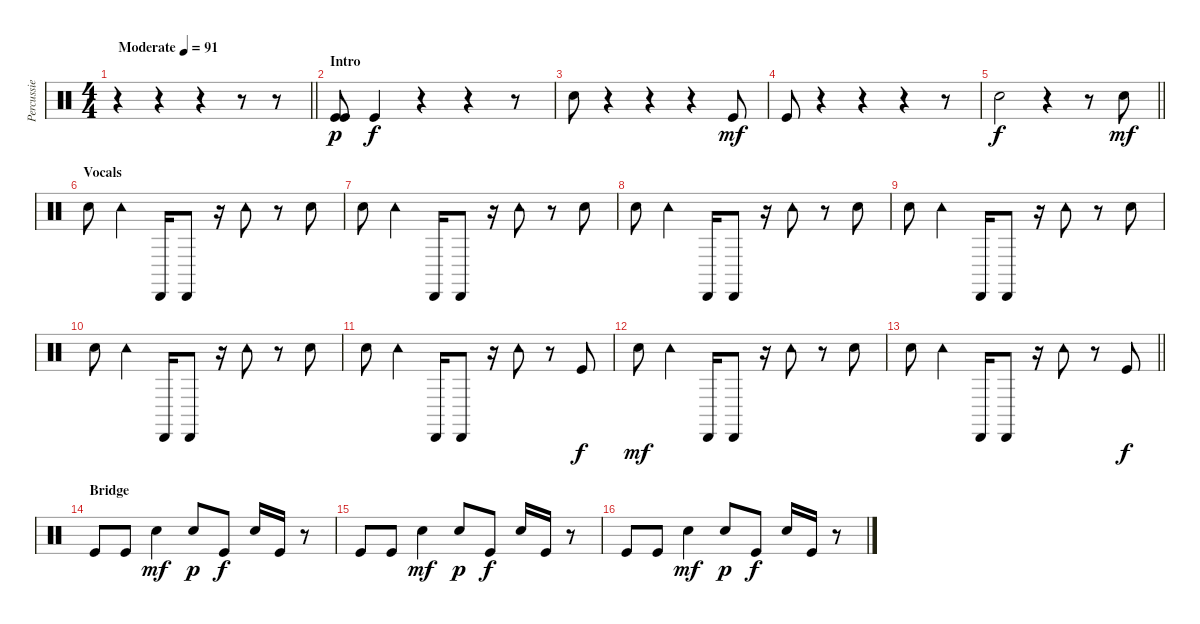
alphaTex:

\track ("Percussie" "Percussie") {instrument percussion}
\staff {score}
\articulation defaults
\ts (4 4)
\tempo (91 "Moderate")
\clef neutral
\barLineRight lightlight
\ks c
r.4{dy p} r.4 r.4 r.8 r.8 |
\section ("" "Intro")
("Kick (hit)" "Kick (hit)").8 "Kick (hit)".4{dy f} r.4 r.4 r.8 |
"Hand Clap (hit)".8 r.4 r.4 r.4 "Kick (hit)".8{dy mf} |
"Kick (hit)".8 r.4 r.4 r.4 r.8 |
\barLineRight lightlight "Hand Clap (hit)".2{dy f}
r.4 r.8 "Hand Clap (hit)".8{dy mf} |
\section ("" "Vocals")
"Hand Clap (hit)".8 "Tambourine (hit)".4 "Cabasa (hit)".16 "Cabasa (hit)".8 r.16 "Tambourine (hit)".8 r.8 "Hand Clap (hit)".8 |
"Hand Clap (hit)".8 "Tambourine (hit)".4 "Cabasa (hit)".16 "Cabasa (hit)".8 r.16 "Tambourine (hit)".8 r.8 "Hand Clap (hit)".8 |
"Hand Clap (hit)".8 "Tambourine (hit)".4 "Cabasa (hit)".16 "Cabasa (hit)".8 r.16 "Tambourine (hit)".8 r.8 "Hand Clap (hit)".8 |
"Hand Clap (hit)".8 "Tambourine (hit)".4 "Cabasa (hit)".16 "Cabasa (hit)".8 r.16 "Tambourine (hit)".8 r.8 "Hand Clap (hit)".8 |
"Hand Clap (hit)".8 "Tambourine (hit)".4 "Cabasa (hit)".16 "Cabasa (hit)".8 r.16 "Tambourine (hit)".8 r.8 "Hand Clap (hit)".8 |
"Hand Clap (hit)".8 "Tambourine (hit)".4 "Cabasa (hit)".16 "Cabasa (hit)".8 r.16 "Tambourine (hit)".8 r.8 "Kick (hit)".8{dy f} |
"Hand Clap (hit)".8{dy mf} "Tambourine (hit)".4 "Cabasa (hit)".16 "Cabasa (hit)".8 r.16 "Tambourine (hit)".8 r.8 "Hand Clap (hit)".8 |
\barLineRight lightlight "Hand Clap (hit)".8 "Tambourine (hit)".4 "Cabasa (hit)".16 "Cabasa (hit)".8
r.16 "Tambourine (hit)".8 r.8 "Kick (hit)".8{dy f} |
\section ("" "Bridge")
"Kick (hit)".8 "Kick (hit)".8 "Electric Snare (hit)".4{dy mf} "Electric Snare (hit)".8{dy p} "Kick (hit)".8{dy f} "Electric Snare (hit)".16 "Kick (hit)".16 r.8 |
"Kick (hit)".8 "Kick (hit)".8 "Electric Snare (hit)".4{dy mf} "Electric Snare (hit)".8{dy p} "Kick (hit)".8{dy f} "Electric Snare (hit)".16 "Kick (hit)".16 r.8 |
"Kick (hit)".8 "Kick (hit)".8 "Electric Snare (hit)".4{dy mf} "Electric Snare (hit)".8{dy p} "Kick (hit)".8{dy f} "Electric Snare (hit)".16 "Kick (hit)".16 r.8
